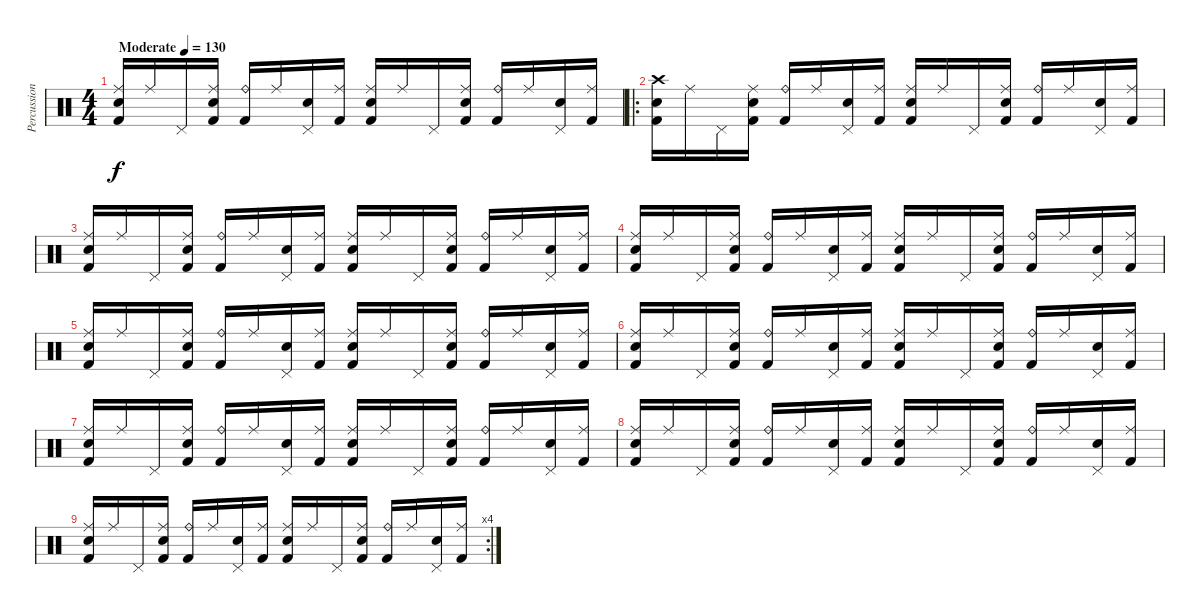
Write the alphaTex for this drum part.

\track ("Percussion" "Percussion") {instrument percussion}
\staff {score}
\articulation defaults
\ts (4 4)
\tempo (130 "Moderate")
\clef neutral
\ks c
("Ride (middle)" "Electric Snare (hit)" "Kick (hit) 2").16{dy f} "Ride (middle)".16 "Pedal Hi-Hat (hit)".16 ("Ride (middle)" "Electric Snare (hit)" "Kick (hit) 2").16 ("Ride (bell)" "Kick (hit) 2").16 "Ride (middle)".16 ("Electric Snare (hit)" "Pedal Hi-Hat (hit)").16 ("Ride (middle)" "Kick (hit) 2").16 ("Ride (middle)" "Electric Snare (hit)" "Kick (hit) 2").16 "Ride (middle)".16 "Pedal Hi-Hat (hit)".16 ("Ride (middle)" "Electric Snare (hit)" "Kick (hit) 2").16 ("Ride (bell)" "Kick (hit) 2").16 "Ride (middle)".16 ("Electric Snare (hit)" "Pedal Hi-Hat (hit)").16 ("Ride (middle)" "Kick (hit) 2").16 |
\ro
("Crash high (hit)" "Electric Snare (hit)" "Kick (hit) 2").16 "Ride (middle)".16 "Pedal Hi-Hat (hit)".16 ("Ride (middle)" "Electric Snare (hit)" "Kick (hit) 2").16 ("Ride (bell)" "Kick (hit) 2").16 "Ride (middle)".16 ("Electric Snare (hit)" "Pedal Hi-Hat (hit)").16 ("Ride (middle)" "Kick (hit) 2").16 ("Ride (middle)" "Electric Snare (hit)" "Kick (hit) 2").16 "Ride (middle)".16 "Pedal Hi-Hat (hit)".16 ("Ride (middle)" "Electric Snare (hit)" "Kick (hit) 2").16 ("Ride (bell)" "Kick (hit) 2").16 "Ride (middle)".16 ("Electric Snare (hit)" "Pedal Hi-Hat (hit)").16 ("Ride (middle)" "Kick (hit) 2").16 |
("Ride (middle)" "Electric Snare (hit)" "Kick (hit) 2").16 "Ride (middle)".16 "Pedal Hi-Hat (hit)".16 ("Ride (middle)" "Electric Snare (hit)" "Kick (hit) 2").16 ("Ride (bell)" "Kick (hit) 2").16 "Ride (middle)".16 ("Electric Snare (hit)" "Pedal Hi-Hat (hit)").16 ("Ride (middle)" "Kick (hit) 2").16 ("Ride (middle)" "Electric Snare (hit)" "Kick (hit) 2").16 "Ride (middle)".16 "Pedal Hi-Hat (hit)".16 ("Ride (middle)" "Electric Snare (hit)" "Kick (hit) 2").16 ("Ride (bell)" "Kick (hit) 2").16 "Ride (middle)".16 ("Electric Snare (hit)" "Pedal Hi-Hat (hit)").16 ("Ride (middle)" "Kick (hit) 2").16 |
("Ride (middle)" "Electric Snare (hit)" "Kick (hit) 2").16 "Ride (middle)".16 "Pedal Hi-Hat (hit)".16 ("Ride (middle)" "Electric Snare (hit)" "Kick (hit) 2").16 ("Ride (bell)" "Kick (hit) 2").16 "Ride (middle)".16 ("Electric Snare (hit)" "Pedal Hi-Hat (hit)").16 ("Ride (middle)" "Kick (hit) 2").16 ("Ride (middle)" "Electric Snare (hit)" "Kick (hit) 2").16 "Ride (middle)".16 "Pedal Hi-Hat (hit)".16 ("Ride (middle)" "Electric Snare (hit)" "Kick (hit) 2").16 ("Ride (bell)" "Kick (hit) 2").16 "Ride (middle)".16 ("Electric Snare (hit)" "Pedal Hi-Hat (hit)").16 ("Ride (middle)" "Kick (hit) 2").16 |
("Ride (middle)" "Electric Snare (hit)" "Kick (hit) 2").16 "Ride (middle)".16 "Pedal Hi-Hat (hit)".16 ("Ride (middle)" "Electric Snare (hit)" "Kick (hit) 2").16 ("Ride (bell)" "Kick (hit) 2").16 "Ride (middle)".16 ("Electric Snare (hit)" "Pedal Hi-Hat (hit)").16 ("Ride (middle)" "Kick (hit) 2").16 ("Ride (middle)" "Electric Snare (hit)" "Kick (hit) 2").16 "Ride (middle)".16 "Pedal Hi-Hat (hit)".16 ("Ride (middle)" "Electric Snare (hit)" "Kick (hit) 2").16 ("Ride (bell)" "Kick (hit) 2").16 "Ride (middle)".16 ("Electric Snare (hit)" "Pedal Hi-Hat (hit)").16 ("Ride (middle)" "Kick (hit) 2").16 |
("Ride (middle)" "Electric Snare (hit)" "Kick (hit) 2").16 "Ride (middle)".16 "Pedal Hi-Hat (hit)".16 ("Ride (middle)" "Electric Snare (hit)" "Kick (hit) 2").16 ("Ride (bell)" "Kick (hit) 2").16 "Ride (middle)".16 ("Electric Snare (hit)" "Pedal Hi-Hat (hit)").16 ("Ride (middle)" "Kick (hit) 2").16 ("Ride (middle)" "Electric Snare (hit)" "Kick (hit) 2").16 "Ride (middle)".16 "Pedal Hi-Hat (hit)".16 ("Ride (middle)" "Electric Snare (hit)" "Kick (hit) 2").16 ("Ride (bell)" "Kick (hit) 2").16 "Ride (middle)".16 ("Electric Snare (hit)" "Pedal Hi-Hat (hit)").16 ("Ride (middle)" "Kick (hit) 2").16 |
("Ride (middle)" "Electric Snare (hit)" "Kick (hit) 2").16 "Ride (middle)".16 "Pedal Hi-Hat (hit)".16 ("Ride (middle)" "Electric Snare (hit)" "Kick (hit) 2").16 ("Ride (bell)" "Kick (hit) 2").16 "Ride (middle)".16 ("Electric Snare (hit)" "Pedal Hi-Hat (hit)").16 ("Ride (middle)" "Kick (hit) 2").16 ("Ride (middle)" "Electric Snare (hit)" "Kick (hit) 2").16 "Ride (middle)".16 "Pedal Hi-Hat (hit)".16 ("Ride (middle)" "Electric Snare (hit)" "Kick (hit) 2").16 ("Ride (bell)" "Kick (hit) 2").16 "Ride (middle)".16 ("Electric Snare (hit)" "Pedal Hi-Hat (hit)").16 ("Ride (middle)" "Kick (hit) 2").16 |
("Ride (middle)" "Electric Snare (hit)" "Kick (hit) 2").16 "Ride (middle)".16 "Pedal Hi-Hat (hit)".16 ("Ride (middle)" "Electric Snare (hit)" "Kick (hit) 2").16 ("Ride (bell)" "Kick (hit) 2").16 "Ride (middle)".16 ("Electric Snare (hit)" "Pedal Hi-Hat (hit)").16 ("Ride (middle)" "Kick (hit) 2").16 ("Ride (middle)" "Electric Snare (hit)" "Kick (hit) 2").16 "Ride (middle)".16 "Pedal Hi-Hat (hit)".16 ("Ride (middle)" "Electric Snare (hit)" "Kick (hit) 2").16 ("Ride (bell)" "Kick (hit) 2").16 "Ride (middle)".16 ("Electric Snare (hit)" "Pedal Hi-Hat (hit)").16 ("Ride (middle)" "Kick (hit) 2").16 |
\rc 4
("Ride (middle)" "Electric Snare (hit)" "Kick (hit) 2").16 "Ride (middle)".16 "Pedal Hi-Hat (hit)".16 ("Ride (middle)" "Electric Snare (hit)" "Kick (hit) 2").16 ("Ride (bell)" "Kick (hit) 2").16 "Ride (middle)".16 ("Electric Snare (hit)" "Pedal Hi-Hat (hit)").16 ("Ride (middle)" "Kick (hit) 2").16 ("Ride (middle)" "Electric Snare (hit)" "Kick (hit) 2").16 "Ride (middle)".16 "Pedal Hi-Hat (hit)".16 ("Ride (middle)" "Electric Snare (hit)" "Kick (hit) 2").16 ("Ride (bell)" "Kick (hit) 2").16 "Ride (middle)".16 ("Electric Snare (hit)" "Pedal Hi-Hat (hit)").16 ("Ride (middle)" "Kick (hit) 2").16
